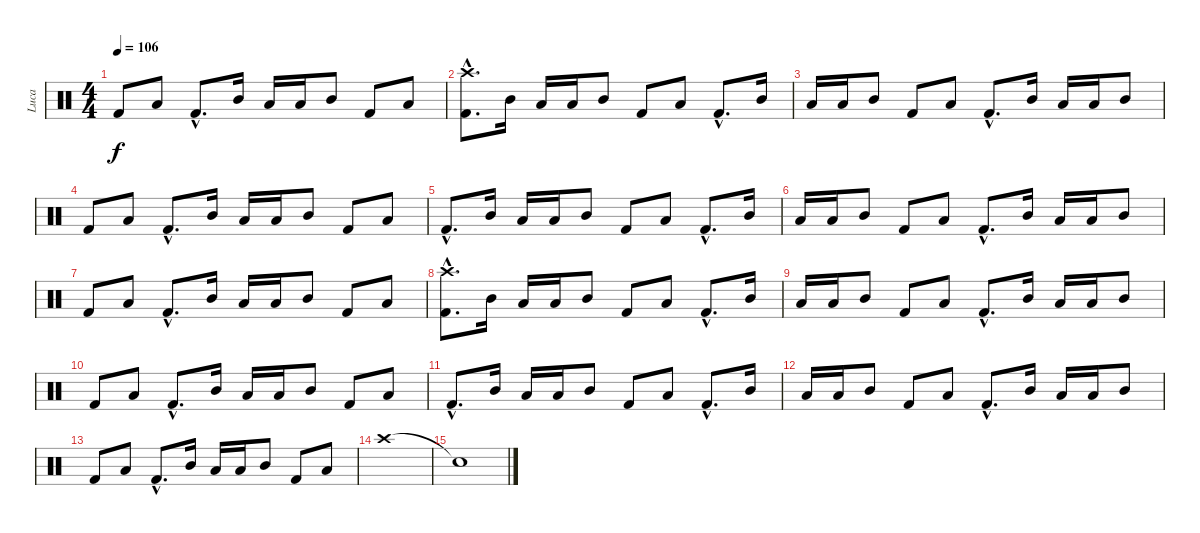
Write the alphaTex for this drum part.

\track ("Luca" "Luca") {instrument percussion}
\staff {score}
\articulation defaults
\ts (4 4)
\tempo 106
\clef neutral
\ks c "Kick (hit) 2".8{dy f} "Low Floor Tom (hit)".8 "Kick (hit) 2"{hac}.8{d} "Mid Tom (hit)".16 "Low Floor Tom (hit)".16 "Low Floor Tom (hit)".16 "Mid Tom (hit)".8 "Kick (hit) 2".8 "Low Floor Tom (hit)".8
|
("Crash high (hit)"{hac} "Kick (hit) 2"{hac}).8{d} "Mid Tom (hit)".16 "Low Floor Tom (hit)".16 "Low Floor Tom (hit)".16 "Mid Tom (hit)".8 "Kick (hit) 2".8 "Low Floor Tom (hit)".8 "Kick (hit) 2"{hac}.8{d} "Mid Tom (hit)".16 |
"Low Floor Tom (hit)".16 "Low Floor Tom (hit)".16 "Mid Tom (hit)".8 "Kick (hit) 2".8 "Low Floor Tom (hit)".8 "Kick (hit) 2"{hac}.8{d} "Mid Tom (hit)".16 "Low Floor Tom (hit)".16 "Low Floor Tom (hit)".16 "Mid Tom (hit)".8 |
"Kick (hit) 2".8 "Low Floor Tom (hit)".8 "Kick (hit) 2"{hac}.8{d} "Mid Tom (hit)".16 "Low Floor Tom (hit)".16 "Low Floor Tom (hit)".16 "Mid Tom (hit)".8 "Kick (hit) 2".8 "Low Floor Tom (hit)".8 |
"Kick (hit) 2"{hac}.8{d} "Mid Tom (hit)".16 "Low Floor Tom (hit)".16 "Low Floor Tom (hit)".16 "Mid Tom (hit)".8 "Kick (hit) 2".8 "Low Floor Tom (hit)".8 "Kick (hit) 2"{hac}.8{d} "Mid Tom (hit)".16 |
"Low Floor Tom (hit)".16 "Low Floor Tom (hit)".16 "Mid Tom (hit)".8 "Kick (hit) 2".8 "Low Floor Tom (hit)".8 "Kick (hit) 2"{hac}.8{d} "Mid Tom (hit)".16 "Low Floor Tom (hit)".16 "Low Floor Tom (hit)".16 "Mid Tom (hit)".8 |
"Kick (hit) 2".8 "Low Floor Tom (hit)".8 "Kick (hit) 2"{hac}.8{d} "Mid Tom (hit)".16 "Low Floor Tom (hit)".16 "Low Floor Tom (hit)".16 "Mid Tom (hit)".8 "Kick (hit) 2".8 "Low Floor Tom (hit)".8 |
("Crash high (hit)"{hac} "Kick (hit) 2"{hac}).8{d} "Mid Tom (hit)".16 "Low Floor Tom (hit)".16 "Low Floor Tom (hit)".16 "Mid Tom (hit)".8 "Kick (hit) 2".8 "Low Floor Tom (hit)".8 "Kick (hit) 2"{hac}.8{d} "Mid Tom (hit)".16 |
"Low Floor Tom (hit)".16 "Low Floor Tom (hit)".16 "Mid Tom (hit)".8 "Kick (hit) 2".8 "Low Floor Tom (hit)".8 "Kick (hit) 2"{hac}.8{d} "Mid Tom (hit)".16 "Low Floor Tom (hit)".16 "Low Floor Tom (hit)".16 "Mid Tom (hit)".8 |
"Kick (hit) 2".8 "Low Floor Tom (hit)".8 "Kick (hit) 2"{hac}.8{d} "Mid Tom (hit)".16 "Low Floor Tom (hit)".16 "Low Floor Tom (hit)".16 "Mid Tom (hit)".8 "Kick (hit) 2".8 "Low Floor Tom (hit)".8 |
"Kick (hit) 2"{hac}.8{d} "Mid Tom (hit)".16 "Low Floor Tom (hit)".16 "Low Floor Tom (hit)".16 "Mid Tom (hit)".8 "Kick (hit) 2".8 "Low Floor Tom (hit)".8 "Kick (hit) 2"{hac}.8{d} "Mid Tom (hit)".16 |
"Low Floor Tom (hit)".16 "Low Floor Tom (hit)".16 "Mid Tom (hit)".8 "Kick (hit) 2".8 "Low Floor Tom (hit)".8 "Kick (hit) 2"{hac}.8{d} "Mid Tom (hit)".16 "Low Floor Tom (hit)".16 "Low Floor Tom (hit)".16 "Mid Tom (hit)".8 |
"Kick (hit) 2".8 "Low Floor Tom (hit)".8 "Kick (hit) 2"{hac}.8{d} "Mid Tom (hit)".16 "Low Floor Tom (hit)".16 "Low Floor Tom (hit)".16 "Mid Tom (hit)".8 "Kick (hit) 2".8 "Low Floor Tom (hit)".8 |
"Crash high (hit)".1 |
"Snare (hit)"{t}.1
